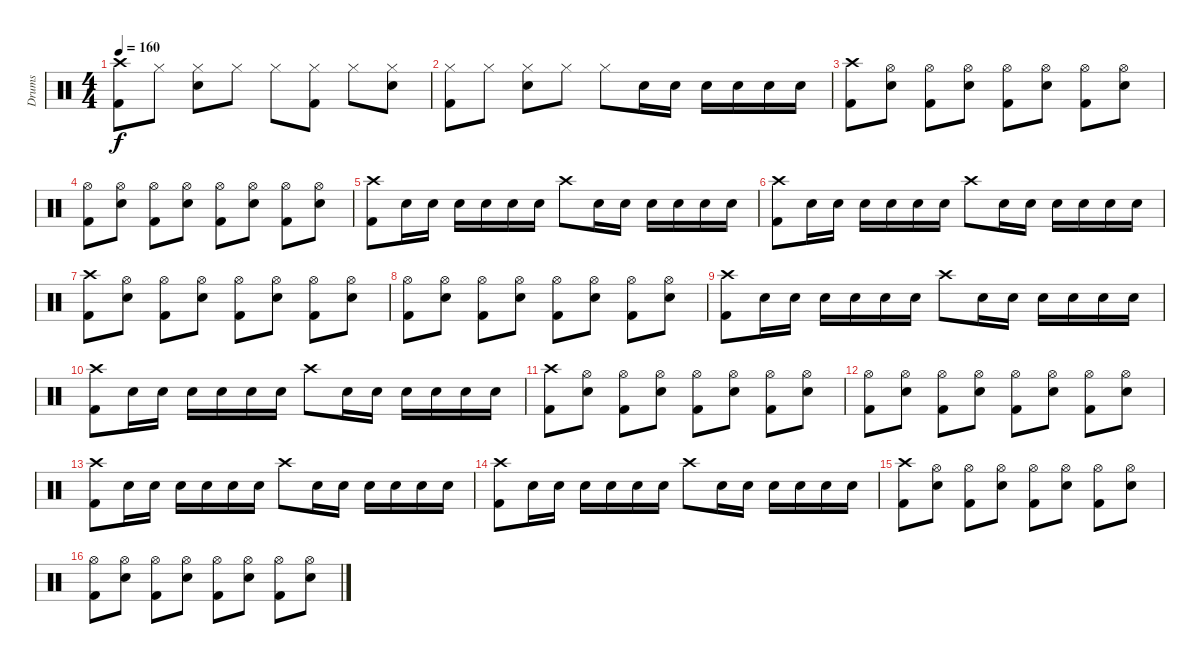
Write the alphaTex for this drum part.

\track ("Drums" "Drums") {solo instrument percussion}
\staff {score}
\articulation defaults
\ts (4 4)
\tempo 160
\clef neutral
\ks c
("Crash high (hit)" "Kick (hit) 2").8{dy f} "Hi-Hat (closed)".8 ("Hi-Hat (closed)" "Snare (hit) 2").8 "Hi-Hat (closed)".8 "Hi-Hat (closed)".8 ("Hi-Hat (closed)" "Kick (hit) 2").8 "Hi-Hat (closed)".8 ("Hi-Hat (closed)" "Snare (hit) 2").8 |
("Hi-Hat (closed)" "Kick (hit) 2").8 "Hi-Hat (closed)".8 ("Hi-Hat (closed)" "Snare (hit) 2").8 "Hi-Hat (closed)".8 "Hi-Hat (closed)".8 "Snare (hit) 2".16 "Snare (hit) 2".16 "Snare (hit) 2".16 "Snare (hit) 2".16 "Snare (hit) 2".16 "Snare (hit) 2".16 |
("Crash high (hit)" "Kick (hit) 2").8 ("Hi-Hat (open)" "Snare (hit) 2").8 ("Hi-Hat (open)" "Kick (hit) 2").8 ("Hi-Hat (open)" "Snare (hit) 2").8 ("Hi-Hat (open)" "Kick (hit) 2").8 ("Hi-Hat (open)" "Snare (hit) 2").8 ("Hi-Hat (open)" "Kick (hit) 2").8 ("Hi-Hat (open)" "Snare (hit) 2").8 |
("Hi-Hat (open)" "Kick (hit) 2").8 ("Hi-Hat (open)" "Snare (hit) 2").8 ("Hi-Hat (open)" "Kick (hit) 2").8 ("Hi-Hat (open)" "Snare (hit) 2").8 ("Hi-Hat (open)" "Kick (hit) 2").8 ("Hi-Hat (open)" "Snare (hit) 2").8 ("Hi-Hat (open)" "Kick (hit) 2").8 ("Hi-Hat (open)" "Snare (hit) 2").8 |
("Crash high (hit)" "Kick (hit) 2").8 "Snare (hit) 2".16 "Snare (hit) 2".16 "Snare (hit) 2".16 "Snare (hit) 2".16 "Snare (hit) 2".16 "Snare (hit) 2".16 "Crash high (hit)".8 "Snare (hit) 2".16 "Snare (hit) 2".16 "Snare (hit) 2".16 "Snare (hit) 2".16 "Snare (hit) 2".16 "Snare (hit) 2".16 |
("Crash high (hit)" "Kick (hit) 2").8 "Snare (hit) 2".16 "Snare (hit) 2".16 "Snare (hit) 2".16 "Snare (hit) 2".16 "Snare (hit) 2".16 "Snare (hit) 2".16 "Crash high (hit)".8 "Snare (hit) 2".16 "Snare (hit) 2".16 "Snare (hit) 2".16 "Snare (hit) 2".16 "Snare (hit) 2".16 "Snare (hit) 2".16 |
("Crash high (hit)" "Kick (hit) 2").8 ("Hi-Hat (open)" "Snare (hit) 2").8 ("Hi-Hat (open)" "Kick (hit) 2").8 ("Hi-Hat (open)" "Snare (hit) 2").8 ("Hi-Hat (open)" "Kick (hit) 2").8 ("Hi-Hat (open)" "Snare (hit) 2").8 ("Hi-Hat (open)" "Kick (hit) 2").8 ("Hi-Hat (open)" "Snare (hit) 2").8 |
("Hi-Hat (open)" "Kick (hit) 2").8 ("Hi-Hat (open)" "Snare (hit) 2").8 ("Hi-Hat (open)" "Kick (hit) 2").8 ("Hi-Hat (open)" "Snare (hit) 2").8 ("Hi-Hat (open)" "Kick (hit) 2").8 ("Hi-Hat (open)" "Snare (hit) 2").8 ("Hi-Hat (open)" "Kick (hit) 2").8 ("Hi-Hat (open)" "Snare (hit) 2").8 |
("Crash high (hit)" "Kick (hit) 2").8 "Snare (hit) 2".16 "Snare (hit) 2".16 "Snare (hit) 2".16 "Snare (hit) 2".16 "Snare (hit) 2".16 "Snare (hit) 2".16 "Crash high (hit)".8 "Snare (hit) 2".16 "Snare (hit) 2".16 "Snare (hit) 2".16 "Snare (hit) 2".16 "Snare (hit) 2".16 "Snare (hit) 2".16 |
("Crash high (hit)" "Kick (hit) 2").8 "Snare (hit) 2".16 "Snare (hit) 2".16 "Snare (hit) 2".16 "Snare (hit) 2".16 "Snare (hit) 2".16 "Snare (hit) 2".16 "Crash high (hit)".8 "Snare (hit) 2".16 "Snare (hit) 2".16 "Snare (hit) 2".16 "Snare (hit) 2".16 "Snare (hit) 2".16 "Snare (hit) 2".16 |
("Crash high (hit)" "Kick (hit) 2").8 ("Hi-Hat (open)" "Snare (hit) 2").8 ("Hi-Hat (open)" "Kick (hit) 2").8 ("Hi-Hat (open)" "Snare (hit) 2").8 ("Hi-Hat (open)" "Kick (hit) 2").8 ("Hi-Hat (open)" "Snare (hit) 2").8 ("Hi-Hat (open)" "Kick (hit) 2").8 ("Hi-Hat (open)" "Snare (hit) 2").8 |
("Hi-Hat (open)" "Kick (hit) 2").8 ("Hi-Hat (open)" "Snare (hit) 2").8 ("Hi-Hat (open)" "Kick (hit) 2").8 ("Hi-Hat (open)" "Snare (hit) 2").8 ("Hi-Hat (open)" "Kick (hit) 2").8 ("Hi-Hat (open)" "Snare (hit) 2").8 ("Hi-Hat (open)" "Kick (hit) 2").8 ("Hi-Hat (open)" "Snare (hit) 2").8 |
("Crash high (hit)" "Kick (hit) 2").8 "Snare (hit) 2".16 "Snare (hit) 2".16 "Snare (hit) 2".16 "Snare (hit) 2".16 "Snare (hit) 2".16 "Snare (hit) 2".16 "Crash high (hit)".8 "Snare (hit) 2".16 "Snare (hit) 2".16 "Snare (hit) 2".16 "Snare (hit) 2".16 "Snare (hit) 2".16 "Snare (hit) 2".16 |
("Crash high (hit)" "Kick (hit) 2").8 "Snare (hit) 2".16 "Snare (hit) 2".16 "Snare (hit) 2".16 "Snare (hit) 2".16 "Snare (hit) 2".16 "Snare (hit) 2".16 "Crash high (hit)".8 "Snare (hit) 2".16 "Snare (hit) 2".16 "Snare (hit) 2".16 "Snare (hit) 2".16 "Snare (hit) 2".16 "Snare (hit) 2".16 |
("Crash high (hit)" "Kick (hit) 2").8 ("Hi-Hat (open)" "Snare (hit) 2").8 ("Hi-Hat (open)" "Kick (hit) 2").8 ("Hi-Hat (open)" "Snare (hit) 2").8 ("Hi-Hat (open)" "Kick (hit) 2").8 ("Hi-Hat (open)" "Snare (hit) 2").8 ("Hi-Hat (open)" "Kick (hit) 2").8 ("Hi-Hat (open)" "Snare (hit) 2").8 |
("Hi-Hat (open)" "Kick (hit) 2").8 ("Hi-Hat (open)" "Snare (hit) 2").8 ("Hi-Hat (open)" "Kick (hit) 2").8 ("Hi-Hat (open)" "Snare (hit) 2").8 ("Hi-Hat (open)" "Kick (hit) 2").8 ("Hi-Hat (open)" "Snare (hit) 2").8 ("Hi-Hat (open)" "Kick (hit) 2").8 ("Hi-Hat (open)" "Snare (hit) 2").8
